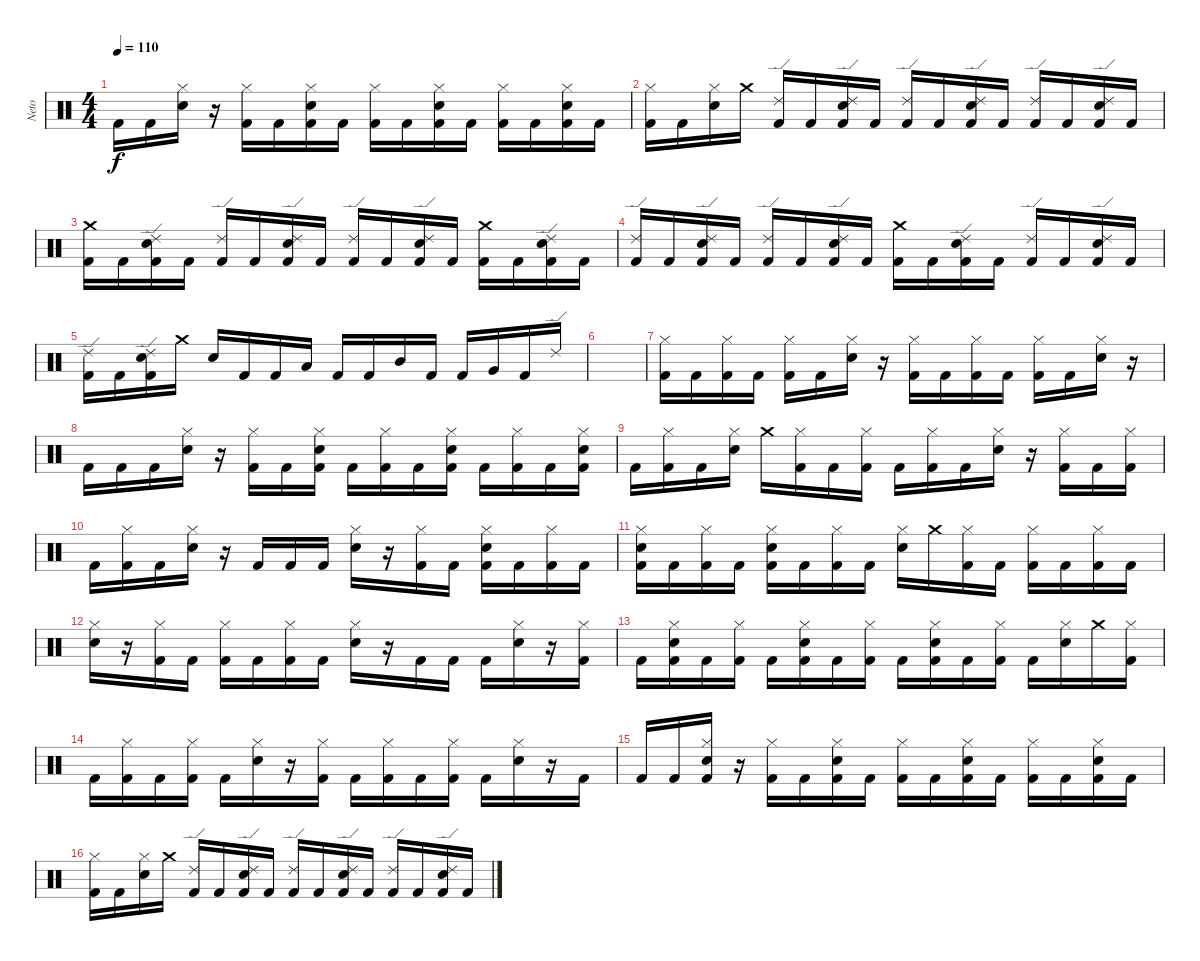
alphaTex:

\track ("Neto" "Neto") {instrument percussion}
\staff {score}
\articulation defaults
\ts (4 4)
\tempo 110
\clef neutral
\ks c "Kick (hit) 2".16{dy f} "Kick (hit) 2".16
("Hi-Hat (closed)" "Electric Snare (hit)").16 r.16 ("Hi-Hat (closed)" "Kick (hit) 2").16 "Kick (hit) 2".16 ("Hi-Hat (closed)" "Electric Snare (hit)" "Kick (hit) 2").16 "Kick (hit) 2".16 ("Hi-Hat (closed)" "Kick (hit) 2").16 "Kick (hit) 2".16 ("Hi-Hat (closed)" "Electric Snare (hit)" "Kick (hit) 2").16 "Kick (hit) 2".16 ("Hi-Hat (closed)" "Kick (hit) 2").16 "Kick (hit) 2".16 ("Hi-Hat (closed)" "Electric Snare (hit)" "Kick (hit) 2").16 "Kick (hit) 2".16 |
("Hi-Hat (closed)" "Kick (hit) 2").16 "Kick (hit) 2".16 ("Hi-Hat (closed)" "Electric Snare (hit)").16 "Crash medium (hit)".16 ("Ride (edge) 2" "Kick (hit) 2").16 "Kick (hit) 2".16 ("Ride (edge) 2" "Electric Snare (hit)" "Kick (hit) 2").16 "Kick (hit) 2".16 ("Ride (edge) 2" "Kick (hit) 2").16 "Kick (hit) 2".16 ("Ride (edge) 2" "Electric Snare (hit)" "Kick (hit) 2").16 "Kick (hit) 2".16 ("Ride (edge) 2" "Kick (hit) 2").16 "Kick (hit) 2".16 ("Ride (edge) 2" "Electric Snare (hit)" "Kick (hit) 2").16 "Kick (hit) 2".16 |
("Crash medium (hit)" "Kick (hit) 2").16 "Kick (hit) 2".16 ("Ride (edge) 2" "Electric Snare (hit)" "Kick (hit) 2").16 "Kick (hit) 2".16 ("Ride (edge) 2" "Kick (hit) 2").16 "Kick (hit) 2".16 ("Ride (edge) 2" "Electric Snare (hit)" "Kick (hit) 2").16 "Kick (hit) 2".16 ("Ride (edge) 2" "Kick (hit) 2").16 "Kick (hit) 2".16 ("Ride (edge) 2" "Electric Snare (hit)" "Kick (hit) 2").16 "Kick (hit) 2".16 ("Crash medium (hit)" "Kick (hit) 2").16 "Kick (hit) 2".16 ("Ride (edge) 2" "Electric Snare (hit)" "Kick (hit) 2").16 "Kick (hit) 2".16 |
("Ride (edge) 2" "Kick (hit) 2").16 "Kick (hit) 2".16 ("Ride (edge) 2" "Electric Snare (hit)" "Kick (hit) 2").16 "Kick (hit) 2".16 ("Ride (edge) 2" "Kick (hit) 2").16 "Kick (hit) 2".16 ("Ride (edge) 2" "Electric Snare (hit)" "Kick (hit) 2").16 "Kick (hit) 2".16 ("Crash medium (hit)" "Kick (hit) 2").16 "Kick (hit) 2".16 ("Ride (edge) 2" "Electric Snare (hit)" "Kick (hit) 2").16 "Kick (hit) 2".16 ("Ride (edge) 2" "Kick (hit) 2").16 "Kick (hit) 2".16 ("Ride (edge) 2" "Electric Snare (hit)" "Kick (hit) 2").16 "Kick (hit) 2".16 |
("Ride (edge) 2" "Kick (hit) 2").16 "Kick (hit) 2".16 ("Ride (edge) 2" "Electric Snare (hit)" "Kick (hit) 2").16 "Crash medium (hit)".16 "Electric Snare (hit)".16 "Kick (hit) 2".16 "Kick (hit) 2".16 "Low Tom (hit)".16 "Kick (hit) 2".16 "Kick (hit) 2".16 "Mid Tom (hit)".16 "Kick (hit) 2".16 "Kick (hit) 2".16 "Very Low Tom (hit)".16 "Kick (hit) 2".16 "Ride (edge) 2".16 |
|
("Hi-Hat (closed)" "Kick (hit) 2").16 "Kick (hit) 2".16 ("Hi-Hat (closed)" "Kick (hit) 2").16 "Kick (hit) 2".16 ("Hi-Hat (closed)" "Kick (hit) 2").16 "Kick (hit) 2".16 ("Hi-Hat (closed)" "Electric Snare (hit)").16 r.16 ("Hi-Hat (closed)" "Kick (hit) 2").16 "Kick (hit) 2".16 ("Hi-Hat (closed)" "Kick (hit) 2").16 "Kick (hit) 2".16 ("Hi-Hat (closed)" "Kick (hit) 2").16 "Kick (hit) 2".16 ("Hi-Hat (closed)" "Electric Snare (hit)").16 r.16 |
"Kick (hit) 2".16 "Kick (hit) 2".16 "Kick (hit) 2".16 ("Hi-Hat (closed)" "Electric Snare (hit)").16 r.16 ("Hi-Hat (closed)" "Kick (hit) 2").16 "Kick (hit) 2".16 ("Hi-Hat (closed)" "Electric Snare (hit)" "Kick (hit) 2").16 "Kick (hit) 2".16 ("Hi-Hat (closed)" "Kick (hit) 2").16 "Kick (hit) 2".16 ("Hi-Hat (closed)" "Electric Snare (hit)" "Kick (hit) 2").16 "Kick (hit) 2".16 ("Hi-Hat (closed)" "Kick (hit) 2").16 "Kick (hit) 2".16 ("Hi-Hat (closed)" "Electric Snare (hit)" "Kick (hit) 2").16 |
"Kick (hit) 2".16 ("Hi-Hat (closed)" "Kick (hit) 2").16 "Kick (hit) 2".16 ("Hi-Hat (closed)" "Electric Snare (hit)").16 "Crash medium (hit)".16 ("Hi-Hat (closed)" "Kick (hit) 2").16 "Kick (hit) 2".16 ("Hi-Hat (closed)" "Kick (hit) 2").16 "Kick (hit) 2".16 ("Hi-Hat (closed)" "Kick (hit) 2").16 "Kick (hit) 2".16 ("Hi-Hat (closed)" "Electric Snare (hit)").16 r.16 ("Hi-Hat (closed)" "Kick (hit) 2").16 "Kick (hit) 2".16 ("Hi-Hat (closed)" "Kick (hit) 2").16 |
"Kick (hit) 2".16 ("Hi-Hat (closed)" "Kick (hit) 2").16 "Kick (hit) 2".16 ("Hi-Hat (closed)" "Electric Snare (hit)").16 r.16 "Kick (hit) 2".16 "Kick (hit) 2".16 "Kick (hit) 2".16 ("Hi-Hat (closed)" "Electric Snare (hit)").16 r.16 ("Hi-Hat (closed)" "Kick (hit) 2").16 "Kick (hit) 2".16 ("Hi-Hat (closed)" "Electric Snare (hit)" "Kick (hit) 2").16 "Kick (hit) 2".16 ("Hi-Hat (closed)" "Kick (hit) 2").16 "Kick (hit) 2".16 |
("Hi-Hat (closed)" "Electric Snare (hit)" "Kick (hit) 2").16 "Kick (hit) 2".16 ("Hi-Hat (closed)" "Kick (hit) 2").16 "Kick (hit) 2".16 ("Hi-Hat (closed)" "Electric Snare (hit)" "Kick (hit) 2").16 "Kick (hit) 2".16 ("Hi-Hat (closed)" "Kick (hit) 2").16 "Kick (hit) 2".16 ("Hi-Hat (closed)" "Electric Snare (hit)").16 "Crash medium (hit)".16 ("Hi-Hat (closed)" "Kick (hit) 2").16 "Kick (hit) 2".16 ("Hi-Hat (closed)" "Kick (hit) 2").16 "Kick (hit) 2".16 ("Hi-Hat (closed)" "Kick (hit) 2").16 "Kick (hit) 2".16 |
("Hi-Hat (closed)" "Electric Snare (hit)").16 r.16 ("Hi-Hat (closed)" "Kick (hit) 2").16 "Kick (hit) 2".16 ("Hi-Hat (closed)" "Kick (hit) 2").16 "Kick (hit) 2".16 ("Hi-Hat (closed)" "Kick (hit) 2").16 "Kick (hit) 2".16 ("Hi-Hat (closed)" "Electric Snare (hit)").16 r.16 "Kick (hit) 2".16 "Kick (hit) 2".16 "Kick (hit) 2".16 ("Hi-Hat (closed)" "Electric Snare (hit)").16 r.16 ("Hi-Hat (closed)" "Kick (hit) 2").16 |
"Kick (hit) 2".16 ("Hi-Hat (closed)" "Electric Snare (hit)" "Kick (hit) 2").16 "Kick (hit) 2".16 ("Hi-Hat (closed)" "Kick (hit) 2").16 "Kick (hit) 2".16 ("Hi-Hat (closed)" "Electric Snare (hit)" "Kick (hit) 2").16 "Kick (hit) 2".16 ("Hi-Hat (closed)" "Kick (hit) 2").16 "Kick (hit) 2".16 ("Hi-Hat (closed)" "Electric Snare (hit)" "Kick (hit) 2").16 "Kick (hit) 2".16 ("Hi-Hat (closed)" "Kick (hit) 2").16 "Kick (hit) 2".16 ("Hi-Hat (closed)" "Electric Snare (hit)").16 "Crash medium (hit)".16 ("Hi-Hat (closed)" "Kick (hit) 2").16 |
"Kick (hit) 2".16 ("Hi-Hat (closed)" "Kick (hit) 2").16 "Kick (hit) 2".16 ("Hi-Hat (closed)" "Kick (hit) 2").16 "Kick (hit) 2".16 ("Hi-Hat (closed)" "Electric Snare (hit)").16 r.16 ("Hi-Hat (closed)" "Kick (hit) 2").16 "Kick (hit) 2".16 ("Hi-Hat (closed)" "Kick (hit) 2").16 "Kick (hit) 2".16 ("Hi-Hat (closed)" "Kick (hit) 2").16 "Kick (hit) 2".16 ("Hi-Hat (closed)" "Electric Snare (hit)").16 r.16 "Kick (hit) 2".16 |
"Kick (hit) 2".16 "Kick (hit) 2".16 ("Hi-Hat (closed)" "Electric Snare (hit)" "Kick (hit) 2").16 r.16 ("Hi-Hat (closed)" "Kick (hit) 2").16 "Kick (hit) 2".16 ("Hi-Hat (closed)" "Electric Snare (hit)" "Kick (hit) 2").16 "Kick (hit) 2".16 ("Hi-Hat (closed)" "Kick (hit) 2").16 "Kick (hit) 2".16 ("Hi-Hat (closed)" "Electric Snare (hit)" "Kick (hit) 2").16 "Kick (hit) 2".16 ("Hi-Hat (closed)" "Kick (hit) 2").16 "Kick (hit) 2".16 ("Hi-Hat (closed)" "Electric Snare (hit)" "Kick (hit) 2").16 "Kick (hit) 2".16 |
("Hi-Hat (closed)" "Kick (hit) 2").16 "Kick (hit) 2".16 ("Hi-Hat (closed)" "Electric Snare (hit)").16 "Crash medium (hit)".16 ("Ride (edge) 2" "Kick (hit) 2").16 "Kick (hit) 2".16 ("Ride (edge) 2" "Electric Snare (hit)" "Kick (hit) 2").16 "Kick (hit) 2".16 ("Ride (edge) 2" "Kick (hit) 2").16 "Kick (hit) 2".16 ("Ride (edge) 2" "Electric Snare (hit)" "Kick (hit) 2").16 "Kick (hit) 2".16 ("Ride (edge) 2" "Kick (hit) 2").16 "Kick (hit) 2".16 ("Ride (edge) 2" "Electric Snare (hit)" "Kick (hit) 2").16 "Kick (hit) 2".16
